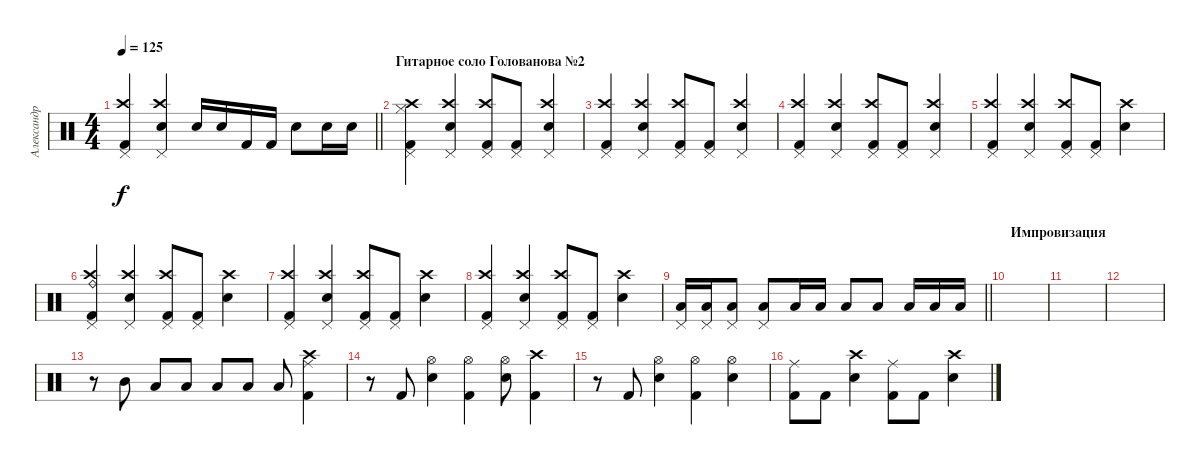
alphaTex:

\track ("Александр Манякин" "Александр ") {instrument percussion}
\staff {score}
\articulation defaults
\ts (4 4)
\tempo 125
\clef neutral
\barLineRight lightlight
\ks c
("Pedal Hi-Hat (hit)" "Crash high (hit)" "Kick (hit) 2").4{dy f} ("Pedal Hi-Hat (hit)" "Crash high (hit)" "Snare (hit) 2").4 "Snare (hit) 2".16 "Snare (hit) 2".16 "Kick (hit) 2".16 "Kick (hit) 2".16 "Snare (hit) 2".8 "Snare (hit) 2".16 "Snare (hit) 2".16 |
\section ("" "Гитарное соло Голованова №2")
("Pedal Hi-Hat (hit)" "Crash high (hit)" "Kick (hit) 2" "Hi-Hat (closed)").4 ("Pedal Hi-Hat (hit)" "Crash high (hit)" "Snare (hit) 2").4 ("Pedal Hi-Hat (hit)" "Crash high (hit)" "Kick (hit) 2").8 ("Pedal Hi-Hat (hit)" "Kick (hit) 2").8 ("Pedal Hi-Hat (hit)" "Crash high (hit)" "Snare (hit) 2").4 |
("Pedal Hi-Hat (hit)" "Crash high (hit)" "Kick (hit) 2").4 ("Pedal Hi-Hat (hit)" "Crash high (hit)" "Snare (hit) 2").4 ("Pedal Hi-Hat (hit)" "Crash high (hit)" "Kick (hit) 2").8 ("Pedal Hi-Hat (hit)" "Kick (hit) 2").8 ("Pedal Hi-Hat (hit)" "Crash high (hit)" "Snare (hit) 2").4 |
("Pedal Hi-Hat (hit)" "Crash high (hit)" "Kick (hit) 2").4 ("Pedal Hi-Hat (hit)" "Crash high (hit)" "Snare (hit) 2").4 ("Pedal Hi-Hat (hit)" "Crash high (hit)" "Kick (hit) 2").8 ("Pedal Hi-Hat (hit)" "Kick (hit) 2").8 ("Pedal Hi-Hat (hit)" "Crash high (hit)" "Snare (hit) 2").4 |
("Pedal Hi-Hat (hit)" "Crash high (hit)" "Kick (hit) 2").4 ("Pedal Hi-Hat (hit)" "Crash high (hit)" "Snare (hit) 2").4 ("Pedal Hi-Hat (hit)" "Crash high (hit)" "Kick (hit) 2").8 ("Pedal Hi-Hat (hit)" "Kick (hit) 2").8 ("Crash high (hit)" "Snare (hit) 2").4 |
("Pedal Hi-Hat (hit)" "Crash high (hit)" "Kick (hit) 2" "Ride (bell)").4 ("Pedal Hi-Hat (hit)" "Crash high (hit)" "Snare (hit) 2").4 ("Pedal Hi-Hat (hit)" "Crash high (hit)" "Kick (hit) 2").8 ("Pedal Hi-Hat (hit)" "Kick (hit) 2").8 ("Crash high (hit)" "Snare (hit) 2").4 |
("Pedal Hi-Hat (hit)" "Crash high (hit)" "Kick (hit) 2").4 ("Pedal Hi-Hat (hit)" "Crash high (hit)" "Snare (hit) 2").4 ("Pedal Hi-Hat (hit)" "Crash high (hit)" "Kick (hit) 2").8 ("Pedal Hi-Hat (hit)" "Kick (hit) 2").8 ("Crash high (hit)" "Snare (hit) 2").4 |
("Pedal Hi-Hat (hit)" "Crash high (hit)" "Kick (hit) 2").4 ("Pedal Hi-Hat (hit)" "Crash high (hit)" "Snare (hit) 2").4 ("Pedal Hi-Hat (hit)" "Crash high (hit)" "Kick (hit) 2").8 ("Pedal Hi-Hat (hit)" "Kick (hit) 2").8 ("Crash high (hit)" "Snare (hit) 2").4 |
\barLineRight lightlight
("Pedal Hi-Hat (hit)" "Low Tom (hit)").16 ("Pedal Hi-Hat (hit)" "Low Tom (hit)").16 ("Pedal Hi-Hat (hit)" "Low Tom (hit)").8 ("Pedal Hi-Hat (hit)" "Low Tom (hit)").8 "Low Tom (hit)".16 "Low Tom (hit)".16 "Low Tom (hit)".8 "Low Tom (hit)".8 "Low Tom (hit)".16 "Low Tom (hit)".16 "Low Tom (hit)".16 |
\section ("" "Импровизация")
|
|
|
r.8 "Mid Tom (hit)".8 "Low Tom (hit)".8 "Low Tom (hit)".8 "Low Tom (hit)".8 "Low Tom (hit)".8 "Low Floor Tom (hit)".8 ("Ride (middle)" "Crash high (hit)" "Kick (hit) 2").4 |
r.8 "Kick (hit) 2".8 ("Hi-Hat (open)" "Snare (hit) 2").4 ("Hi-Hat (open)" "Kick (hit) 2").4 ("Hi-Hat (open)" "Snare (hit) 2").8 ("Crash high (hit)" "Kick (hit) 2").4 |
r.8 "Kick (hit) 2".8 ("Hi-Hat (open)" "Snare (hit) 2").4 ("Hi-Hat (open)" "Kick (hit) 2").4 ("Hi-Hat (open)" "Snare (hit) 2").4 |
("Kick (hit) 2" "Ride (middle)").8 "Kick (hit) 2".8 ("Crash high (hit)" "Snare (hit) 2").4 ("Kick (hit) 2" "Ride (middle)").8 "Kick (hit) 2".8 ("Crash high (hit)" "Snare (hit) 2").4
